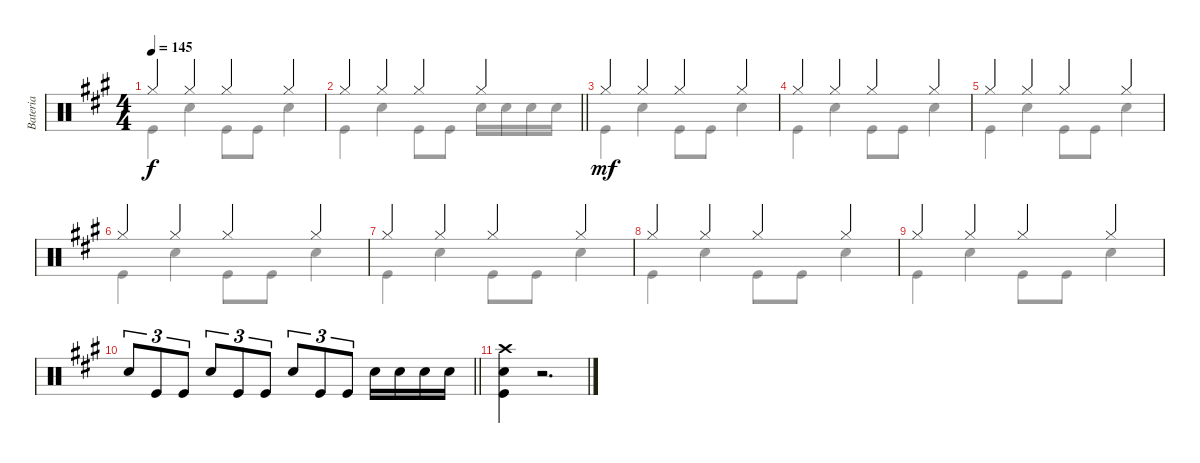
\track ("Bateria" "Bateria") {instrument percussion}
\staff {score}
\articulation defaults
\voice
\ts (4 4)
\tempo 145
\clef neutral
\ks a "Hi-Hat (closed)".4{dy f} "Hi-Hat (closed)".4 "Hi-Hat (closed)".4 "Hi-Hat (closed)".4
|
\barLineRight lightlight "Hi-Hat (closed)".4 "Hi-Hat (closed)".4 "Hi-Hat (closed)".4 "Hi-Hat (closed)".4
|
"Hi-Hat (closed)".4{dy mf} "Hi-Hat (closed)".4 "Hi-Hat (closed)".4 "Hi-Hat (closed)".4 |
"Hi-Hat (closed)".4 "Hi-Hat (closed)".4 "Hi-Hat (closed)".4 "Hi-Hat (closed)".4 |
"Hi-Hat (closed)".4 "Hi-Hat (closed)".4 "Hi-Hat (closed)".4 "Hi-Hat (closed)".4 |
"Hi-Hat (closed)".4 "Hi-Hat (closed)".4 "Hi-Hat (closed)".4 "Hi-Hat (closed)".4 |
"Hi-Hat (closed)".4 "Hi-Hat (closed)".4 "Hi-Hat (closed)".4 "Hi-Hat (closed)".4 |
"Hi-Hat (closed)".4 "Hi-Hat (closed)".4 "Hi-Hat (closed)".4 "Hi-Hat (closed)".4 |
"Hi-Hat (closed)".4 "Hi-Hat (closed)".4 "Hi-Hat (closed)".4 "Hi-Hat (closed)".4 |
\barLineRight lightlight "Snare (hit) 2".8{tu (3 2)} "Kick (hit)".8{tu (3 2)} "Kick (hit)".8{tu (3 2)} "Snare (hit) 2".8{tu (3 2)} "Kick (hit)".8{tu (3 2)} "Kick (hit)".8{tu (3 2)} "Snare (hit) 2".8{tu (3 2)} "Kick (hit)".8{tu (3 2)} "Kick (hit)".8{tu (3 2)} "Snare (hit) 2".16 "Snare (hit) 2".16 "Snare (hit) 2".16 "Snare (hit) 2".16
|
("Crash high (hit)" "Snare (hit) 2" "Kick (hit)").4 r.2{d}
\voice
\clef neutral
\ottava regular
\simile none
\ks a "Kick (hit)".4{dy f} "Snare (hit) 2".4 "Kick (hit)".8 "Kick (hit)".8 "Snare (hit) 2".4
|
\barLineRight lightlight "Kick (hit)".4 "Snare (hit) 2".4 "Kick (hit)".8 "Kick (hit)".8 "Snare (hit) 2".16 "Snare (hit) 2".16 "Snare (hit) 2".16 "Snare (hit) 2".16
|
"Kick (hit)".4{dy mf} "Snare (hit) 2".4 "Kick (hit)".8 "Kick (hit)".8 "Snare (hit) 2".4 |
"Kick (hit)".4 "Snare (hit) 2".4 "Kick (hit)".8 "Kick (hit)".8 "Snare (hit) 2".4 |
"Kick (hit)".4 "Snare (hit) 2".4 "Kick (hit)".8 "Kick (hit)".8 "Snare (hit) 2".4 |
"Kick (hit)".4 "Snare (hit) 2".4 "Kick (hit)".8 "Kick (hit)".8 "Snare (hit) 2".4 |
"Kick (hit)".4 "Snare (hit) 2".4 "Kick (hit)".8 "Kick (hit)".8 "Snare (hit) 2".4 |
"Kick (hit)".4 "Snare (hit) 2".4 "Kick (hit)".8 "Kick (hit)".8 "Snare (hit) 2".4 |
"Kick (hit)".4 "Snare (hit) 2".4 "Kick (hit)".8 "Kick (hit)".8 "Snare (hit) 2".4 |
\barLineRight lightlight
|
